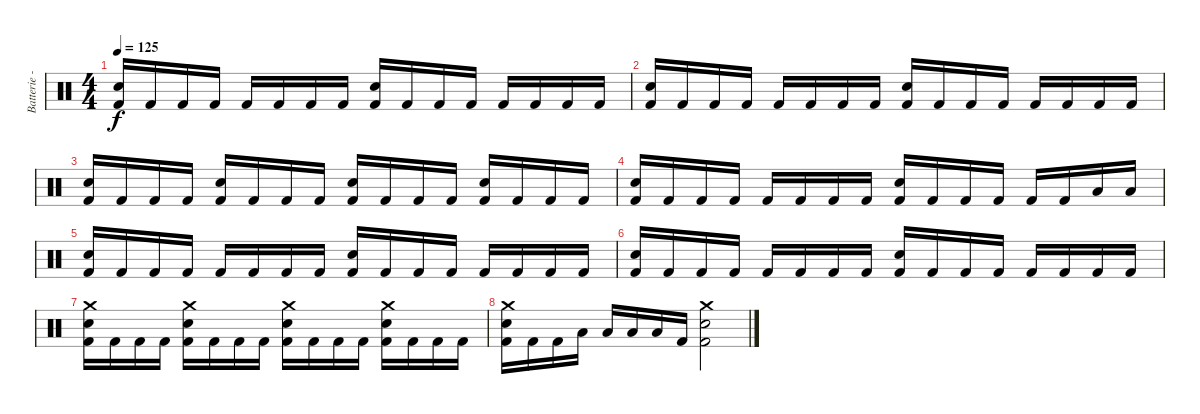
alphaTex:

\track ("Batterie - Shane Gaalaas" "Batterie -") {instrument percussion}
\staff {score}
\articulation defaults
\ts (4 4)
\tempo 125
\clef neutral
\ks c
("Electric Snare (hit)" "Kick (hit) 2").16{dy f} "Kick (hit) 2".16 "Kick (hit) 2".16 "Kick (hit) 2".16 "Kick (hit) 2".16 "Kick (hit) 2".16 "Kick (hit) 2".16 "Kick (hit) 2".16 ("Electric Snare (hit)" "Kick (hit) 2").16 "Kick (hit) 2".16 "Kick (hit) 2".16 "Kick (hit) 2".16 "Kick (hit) 2".16 "Kick (hit) 2".16 "Kick (hit) 2".16 "Kick (hit) 2".16 |
("Electric Snare (hit)" "Kick (hit) 2").16 "Kick (hit) 2".16 "Kick (hit) 2".16 "Kick (hit) 2".16 "Kick (hit) 2".16 "Kick (hit) 2".16 "Kick (hit) 2".16 "Kick (hit) 2".16 ("Electric Snare (hit)" "Kick (hit) 2").16 "Kick (hit) 2".16 "Kick (hit) 2".16 "Kick (hit) 2".16 "Kick (hit) 2".16 "Kick (hit) 2".16 "Kick (hit) 2".16 "Kick (hit) 2".16 |
("Electric Snare (hit)" "Kick (hit) 2").16 "Kick (hit) 2".16 "Kick (hit) 2".16 "Kick (hit) 2".16 ("Electric Snare (hit)" "Kick (hit) 2").16 "Kick (hit) 2".16 "Kick (hit) 2".16 "Kick (hit) 2".16 ("Electric Snare (hit)" "Kick (hit) 2").16 "Kick (hit) 2".16 "Kick (hit) 2".16 "Kick (hit) 2".16 ("Electric Snare (hit)" "Kick (hit) 2").16 "Kick (hit) 2".16 "Kick (hit) 2".16 "Kick (hit) 2".16 |
("Electric Snare (hit)" "Kick (hit) 2").16 "Kick (hit) 2".16 "Kick (hit) 2".16 "Kick (hit) 2".16 "Kick (hit) 2".16 "Kick (hit) 2".16 "Kick (hit) 2".16 "Kick (hit) 2".16 ("Electric Snare (hit)" "Kick (hit) 2").16 "Kick (hit) 2".16 "Kick (hit) 2".16 "Kick (hit) 2".16 "Kick (hit) 2".16 "Kick (hit) 2".16 "Low Tom (hit)".16 "Low Tom (hit)".16 |
("Electric Snare (hit)" "Kick (hit) 2").16 "Kick (hit) 2".16 "Kick (hit) 2".16 "Kick (hit) 2".16 "Kick (hit) 2".16 "Kick (hit) 2".16 "Kick (hit) 2".16 "Kick (hit) 2".16 ("Electric Snare (hit)" "Kick (hit) 2").16 "Kick (hit) 2".16 "Kick (hit) 2".16 "Kick (hit) 2".16 "Kick (hit) 2".16 "Kick (hit) 2".16 "Kick (hit) 2".16 "Kick (hit) 2".16 |
("Electric Snare (hit)" "Kick (hit) 2").16 "Kick (hit) 2".16 "Kick (hit) 2".16 "Kick (hit) 2".16 "Kick (hit) 2".16 "Kick (hit) 2".16 "Kick (hit) 2".16 "Kick (hit) 2".16 ("Electric Snare (hit)" "Kick (hit) 2").16 "Kick (hit) 2".16 "Kick (hit) 2".16 "Kick (hit) 2".16 "Kick (hit) 2".16 "Kick (hit) 2".16 "Kick (hit) 2".16 "Kick (hit) 2".16 |
("Crash medium (hit)" "Electric Snare (hit)" "Kick (hit) 2").16 "Kick (hit) 2".16 "Kick (hit) 2".16 "Kick (hit) 2".16 ("Crash medium (hit)" "Electric Snare (hit)" "Kick (hit) 2").16 "Kick (hit) 2".16 "Kick (hit) 2".16 "Kick (hit) 2".16 ("Crash medium (hit)" "Electric Snare (hit)" "Kick (hit) 2").16 "Kick (hit) 2".16 "Kick (hit) 2".16 "Kick (hit) 2".16 ("Crash medium (hit)" "Electric Snare (hit)" "Kick (hit) 2").16 "Kick (hit) 2".16 "Kick (hit) 2".16 "Kick (hit) 2".16 |
("Crash medium (hit)" "Electric Snare (hit)" "Kick (hit) 2").16 "Kick (hit) 2".16 "Kick (hit) 2".16 "Low Tom (hit)".16 "Low Tom (hit)".16 "Low Tom (hit)".16 "Low Tom (hit)".16 "Kick (hit) 2".16 ("Crash medium (hit)" "Electric Snare (hit)" "Kick (hit) 2").2
